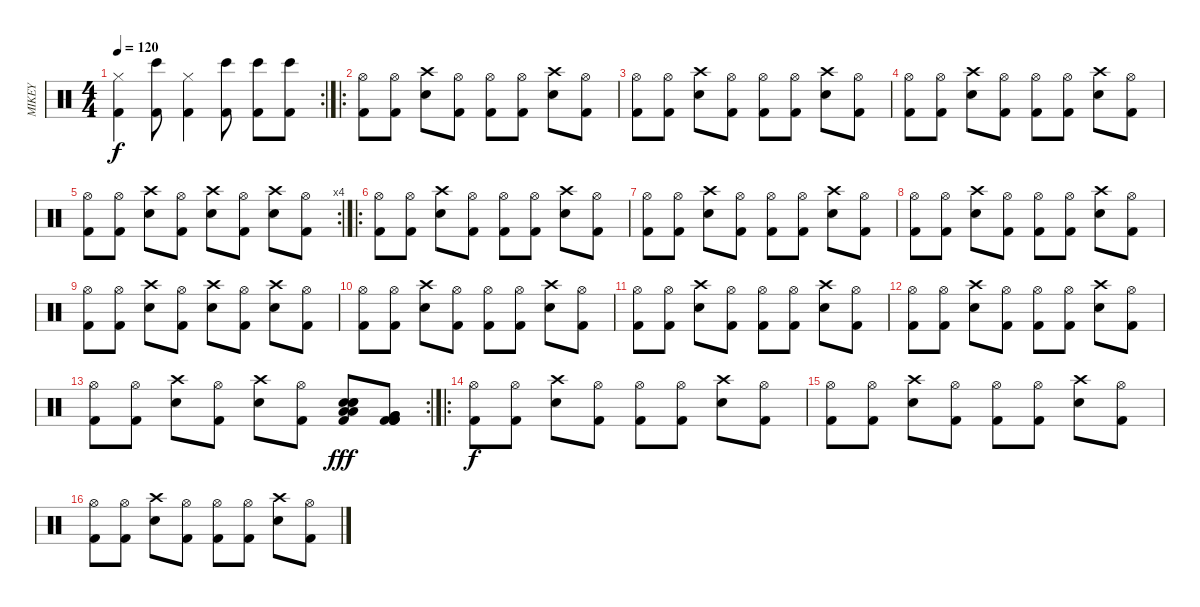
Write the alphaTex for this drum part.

\track ("MIKEY" "MIKEY") {instrument percussion}
\staff {score}
\articulation defaults
\rc 2
\ts (4 4)
\tempo 120
\clef neutral
\ks c
("Hi-Hat (closed)" "Kick (hit) 2").4{dy f} ("Bongo High (hit)" "Kick (hit) 2").8 ("Hi-Hat (closed)" "Kick (hit) 2").4 ("Bongo High (hit)" "Kick (hit) 2").8 ("Bongo High (hit)" "Kick (hit) 2").8 ("Bongo High (hit)" "Kick (hit) 2").8 |
\ro
("Hi-Hat (open)" "Kick (hit) 2").8 ("Hi-Hat (open)" "Kick (hit) 2").8 ("Crash high (hit)" "Snare (hit) 2").8 ("Hi-Hat (open)" "Kick (hit) 2").8 ("Hi-Hat (open)" "Kick (hit) 2").8 ("Hi-Hat (open)" "Kick (hit) 2").8 ("Crash high (hit)" "Snare (hit) 2").8 ("Hi-Hat (open)" "Kick (hit) 2").8 |
("Hi-Hat (open)" "Kick (hit) 2").8 ("Hi-Hat (open)" "Kick (hit) 2").8 ("Crash high (hit)" "Snare (hit) 2").8 ("Hi-Hat (open)" "Kick (hit) 2").8 ("Hi-Hat (open)" "Kick (hit) 2").8 ("Hi-Hat (open)" "Kick (hit) 2").8 ("Crash high (hit)" "Snare (hit) 2").8 ("Hi-Hat (open)" "Kick (hit) 2").8 |
("Hi-Hat (open)" "Kick (hit) 2").8 ("Hi-Hat (open)" "Kick (hit) 2").8 ("Crash high (hit)" "Snare (hit) 2").8 ("Hi-Hat (open)" "Kick (hit) 2").8 ("Hi-Hat (open)" "Kick (hit) 2").8 ("Hi-Hat (open)" "Kick (hit) 2").8 ("Crash high (hit)" "Snare (hit) 2").8 ("Hi-Hat (open)" "Kick (hit) 2").8 |
\rc 4
("Hi-Hat (open)" "Kick (hit) 2").8 ("Hi-Hat (open)" "Kick (hit) 2").8 ("Crash high (hit)" "Snare (hit) 2").8 ("Hi-Hat (open)" "Kick (hit) 2").8 ("Crash high (hit)" "Snare (hit) 2").8 ("Hi-Hat (open)" "Kick (hit) 2").8 ("Crash high (hit)" "Snare (hit) 2").8 ("Hi-Hat (open)" "Kick (hit) 2").8 |
\ro
("Hi-Hat (open)" "Kick (hit) 2").8 ("Hi-Hat (open)" "Kick (hit) 2").8 ("Crash high (hit)" "Snare (hit) 2").8 ("Hi-Hat (open)" "Kick (hit) 2").8 ("Hi-Hat (open)" "Kick (hit) 2").8 ("Hi-Hat (open)" "Kick (hit) 2").8 ("Crash high (hit)" "Snare (hit) 2").8 ("Hi-Hat (open)" "Kick (hit) 2").8 |
("Hi-Hat (open)" "Kick (hit) 2").8 ("Hi-Hat (open)" "Kick (hit) 2").8 ("Crash high (hit)" "Snare (hit) 2").8 ("Hi-Hat (open)" "Kick (hit) 2").8 ("Hi-Hat (open)" "Kick (hit) 2").8 ("Hi-Hat (open)" "Kick (hit) 2").8 ("Crash high (hit)" "Snare (hit) 2").8 ("Hi-Hat (open)" "Kick (hit) 2").8 |
("Hi-Hat (open)" "Kick (hit) 2").8 ("Hi-Hat (open)" "Kick (hit) 2").8 ("Crash high (hit)" "Snare (hit) 2").8 ("Hi-Hat (open)" "Kick (hit) 2").8 ("Hi-Hat (open)" "Kick (hit) 2").8 ("Hi-Hat (open)" "Kick (hit) 2").8 ("Crash high (hit)" "Snare (hit) 2").8 ("Hi-Hat (open)" "Kick (hit) 2").8 |
("Hi-Hat (open)" "Kick (hit) 2").8 ("Hi-Hat (open)" "Kick (hit) 2").8 ("Crash high (hit)" "Snare (hit) 2").8 ("Hi-Hat (open)" "Kick (hit) 2").8 ("Crash high (hit)" "Snare (hit) 2").8 ("Hi-Hat (open)" "Kick (hit) 2").8 ("Crash high (hit)" "Snare (hit) 2").8 ("Hi-Hat (open)" "Kick (hit) 2").8 |
("Hi-Hat (open)" "Kick (hit) 2").8 ("Hi-Hat (open)" "Kick (hit) 2").8 ("Crash high (hit)" "Snare (hit) 2").8 ("Hi-Hat (open)" "Kick (hit) 2").8 ("Hi-Hat (open)" "Kick (hit) 2").8 ("Hi-Hat (open)" "Kick (hit) 2").8 ("Crash high (hit)" "Snare (hit) 2").8 ("Hi-Hat (open)" "Kick (hit) 2").8 |
("Hi-Hat (open)" "Kick (hit) 2").8 ("Hi-Hat (open)" "Kick (hit) 2").8 ("Crash high (hit)" "Snare (hit) 2").8 ("Hi-Hat (open)" "Kick (hit) 2").8 ("Hi-Hat (open)" "Kick (hit) 2").8 ("Hi-Hat (open)" "Kick (hit) 2").8 ("Crash high (hit)" "Snare (hit) 2").8 ("Hi-Hat (open)" "Kick (hit) 2").8 |
("Hi-Hat (open)" "Kick (hit) 2").8 ("Hi-Hat (open)" "Kick (hit) 2").8 ("Crash high (hit)" "Snare (hit) 2").8 ("Hi-Hat (open)" "Kick (hit) 2").8 ("Hi-Hat (open)" "Kick (hit) 2").8 ("Hi-Hat (open)" "Kick (hit) 2").8 ("Crash high (hit)" "Snare (hit) 2").8 ("Hi-Hat (open)" "Kick (hit) 2").8 |
\rc 2
("Hi-Hat (open)" "Kick (hit) 2").8 ("Hi-Hat (open)" "Kick (hit) 2").8 ("Crash high (hit)" "Snare (hit) 2").8 ("Hi-Hat (open)" "Kick (hit) 2").8 ("Crash high (hit)" "Snare (hit) 2").8 ("Hi-Hat (open)" "Kick (hit) 2").8 ("Snare (hit) 2" "Snare (hit) 2" "Kick (hit) 2" "Low Tom (hit)" "Low Tom (hit)" "Snare (hit) 2").8{dy fff} ("Kick (hit) 2" "Kick (hit) 2" "Kick (hit) 2" "Very Low Tom (hit)" "Very Low Tom (hit)" "Kick (hit) 2").8 |
\ro
("Hi-Hat (open)" "Kick (hit) 2").8{dy f} ("Hi-Hat (open)" "Kick (hit) 2").8 ("Crash high (hit)" "Snare (hit) 2").8 ("Hi-Hat (open)" "Kick (hit) 2").8 ("Hi-Hat (open)" "Kick (hit) 2").8 ("Hi-Hat (open)" "Kick (hit) 2").8 ("Crash high (hit)" "Snare (hit) 2").8 ("Hi-Hat (open)" "Kick (hit) 2").8 |
("Hi-Hat (open)" "Kick (hit) 2").8 ("Hi-Hat (open)" "Kick (hit) 2").8 ("Crash high (hit)" "Snare (hit) 2").8 ("Hi-Hat (open)" "Kick (hit) 2").8 ("Hi-Hat (open)" "Kick (hit) 2").8 ("Hi-Hat (open)" "Kick (hit) 2").8 ("Crash high (hit)" "Snare (hit) 2").8 ("Hi-Hat (open)" "Kick (hit) 2").8 |
("Hi-Hat (open)" "Kick (hit) 2").8 ("Hi-Hat (open)" "Kick (hit) 2").8 ("Crash high (hit)" "Snare (hit) 2").8 ("Hi-Hat (open)" "Kick (hit) 2").8 ("Hi-Hat (open)" "Kick (hit) 2").8 ("Hi-Hat (open)" "Kick (hit) 2").8 ("Crash high (hit)" "Snare (hit) 2").8 ("Hi-Hat (open)" "Kick (hit) 2").8
